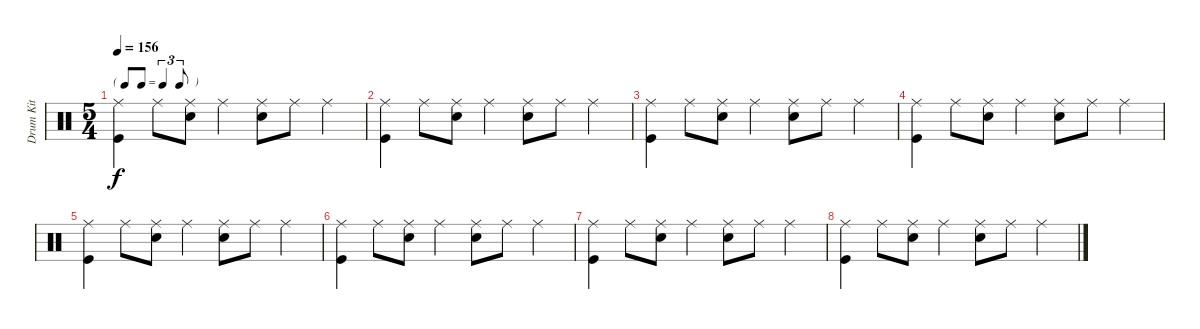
\track ("Drum Kit" "Drum Kit") {instrument percussion}
\staff {score}
\articulation defaults
\ts (5 4)
\tf triplet8th
\tempo 156
\clef neutral
\ks c
("Ride (middle)" "Kick (hit)").4{dy f} "Ride (middle)".8 ("Ride (middle)" "Snare (hit) 2").8 "Ride (middle)".4 ("Ride (middle)" "Snare (hit) 2").8 "Ride (middle)".8 "Ride (middle)".4 |
("Ride (middle)" "Kick (hit)").4 "Ride (middle)".8 ("Ride (middle)" "Snare (hit) 2").8 "Ride (middle)".4 ("Ride (middle)" "Snare (hit) 2").8 "Ride (middle)".8 "Ride (middle)".4 |
("Ride (middle)" "Kick (hit)").4 "Ride (middle)".8 ("Ride (middle)" "Snare (hit) 2").8 "Ride (middle)".4 ("Ride (middle)" "Snare (hit) 2").8 "Ride (middle)".8 "Ride (middle)".4 |
("Ride (middle)" "Kick (hit)").4 "Ride (middle)".8 ("Ride (middle)" "Snare (hit) 2").8 "Ride (middle)".4 ("Ride (middle)" "Snare (hit) 2").8 "Ride (middle)".8 "Ride (middle)".4 |
("Ride (middle)" "Kick (hit)").4 "Ride (middle)".8 ("Ride (middle)" "Snare (hit) 2").8 "Ride (middle)".4 ("Ride (middle)" "Snare (hit) 2").8 "Ride (middle)".8 "Ride (middle)".4 |
("Ride (middle)" "Kick (hit)").4 "Ride (middle)".8 ("Ride (middle)" "Snare (hit) 2").8 "Ride (middle)".4 ("Ride (middle)" "Snare (hit) 2").8 "Ride (middle)".8 "Ride (middle)".4 |
("Ride (middle)" "Kick (hit)").4 "Ride (middle)".8 ("Ride (middle)" "Snare (hit) 2").8 "Ride (middle)".4 ("Ride (middle)" "Snare (hit) 2").8 "Ride (middle)".8 "Ride (middle)".4 |
("Ride (middle)" "Kick (hit)").4 "Ride (middle)".8 ("Ride (middle)" "Snare (hit) 2").8 "Ride (middle)".4 ("Ride (middle)" "Snare (hit) 2").8 "Ride (middle)".8 "Ride (middle)".4
